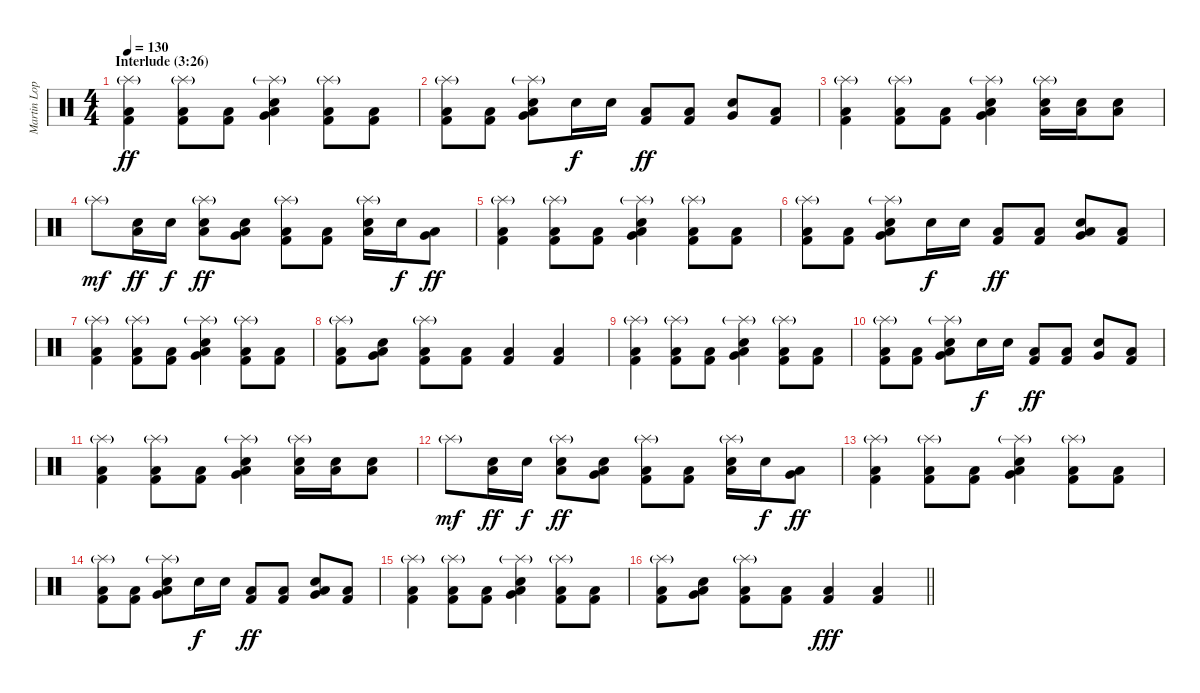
\track ("Martin Lopez" "Martin Lop") {instrument percussion}
\staff {score}
\articulation defaults
\ts (4 4)
\section ("" "Interlude (3:26)")
\tempo 130
\clef neutral
\ks c
("Splash (hit)"{g} "Kick (hit) 2" "Low Floor Tom (hit)").4{dy ff} ("Splash (hit)"{g} "Kick (hit) 2" "Low Floor Tom (hit)").8 ("Kick (hit) 2" "Low Floor Tom (hit)").8 ("Splash (hit)"{g} "Very Low Tom (hit)" "Snare (hit) 2" "Low Floor Tom (hit)").4 ("Splash (hit)"{g} "Kick (hit) 2" "Low Floor Tom (hit)").8 ("Kick (hit) 2" "Low Floor Tom (hit)").8 |
("Splash (hit)"{g} "Kick (hit) 2" "Low Floor Tom (hit)").8 ("Kick (hit) 2" "Low Floor Tom (hit)").8 ("Splash (hit)"{g} "Very Low Tom (hit)" "Snare (hit) 2" "Low Floor Tom (hit)").8 "Snare (hit) 2".16{dy f} "Snare (hit) 2".16 ("Kick (hit) 2" "Low Floor Tom (hit)").8{dy ff} ("Kick (hit) 2" "Low Floor Tom (hit)").8 ("Very Low Tom (hit)" "Snare (hit) 2").8 ("Kick (hit) 2" "Low Floor Tom (hit)").8 |
("Splash (hit)"{g} "Kick (hit) 2" "Low Floor Tom (hit)").4 ("Splash (hit)"{g} "Kick (hit) 2" "Low Floor Tom (hit)").8 ("Kick (hit) 2" "Low Floor Tom (hit)").8 ("Splash (hit)"{g} "Very Low Tom (hit)" "Snare (hit) 2" "Low Floor Tom (hit)").4 ("Splash (hit)"{g} "Snare (hit) 2" "Low Floor Tom (hit)").16 ("Snare (hit) 2" "Low Floor Tom (hit)").16 ("Snare (hit) 2" "Low Floor Tom (hit)").8 |
"Splash (hit)"{g}.8{dy mf} ("Snare (hit) 2" "Low Floor Tom (hit)").16{dy ff} "Snare (hit) 2".16{dy f} ("Splash (hit)"{g} "Snare (hit) 2" "Low Floor Tom (hit)").8{dy ff} ("Very Low Tom (hit)" "Snare (hit) 2" "Low Floor Tom (hit)").8 ("Splash (hit)"{g} "Kick (hit) 2" "Low Floor Tom (hit)").8 ("Kick (hit) 2" "Low Floor Tom (hit)").8 ("Splash (hit)"{g} "Snare (hit) 2" "Low Floor Tom (hit)").16 "Snare (hit) 2".16{dy f} ("Very Low Tom (hit)" "Low Tom (hit)").8{dy ff} |
("Splash (hit)"{g} "Kick (hit) 2" "Low Floor Tom (hit)").4 ("Splash (hit)"{g} "Kick (hit) 2" "Low Floor Tom (hit)").8 ("Kick (hit) 2" "Low Floor Tom (hit)").8 ("Splash (hit)"{g} "Very Low Tom (hit)" "Snare (hit) 2" "Low Floor Tom (hit)").4 ("Splash (hit)"{g} "Kick (hit) 2" "Low Floor Tom (hit)").8 ("Kick (hit) 2" "Low Floor Tom (hit)").8 |
("Splash (hit)"{g} "Kick (hit) 2" "Low Floor Tom (hit)").8 ("Kick (hit) 2" "Low Floor Tom (hit)").8 ("Splash (hit)"{g} "Very Low Tom (hit)" "Snare (hit) 2" "Low Floor Tom (hit)").8 "Snare (hit) 2".16{dy f} "Snare (hit) 2".16 ("Kick (hit) 2" "Low Floor Tom (hit)").8{dy ff} ("Kick (hit) 2" "Low Floor Tom (hit)").8 ("Very Low Tom (hit)" "Snare (hit) 2" "Low Floor Tom (hit)").8 ("Kick (hit) 2" "Low Floor Tom (hit)").8 |
("Splash (hit)"{g} "Kick (hit) 2" "Low Floor Tom (hit)").4 ("Splash (hit)"{g} "Kick (hit) 2" "Low Floor Tom (hit)").8 ("Kick (hit) 2" "Low Floor Tom (hit)").8 ("Splash (hit)"{g} "Very Low Tom (hit)" "Snare (hit) 2" "Low Floor Tom (hit)").4 ("Splash (hit)"{g} "Kick (hit) 2" "Low Floor Tom (hit)").8 ("Kick (hit) 2" "Low Floor Tom (hit)").8 |
("Splash (hit)"{g} "Kick (hit) 2" "Low Floor Tom (hit)").8 ("Very Low Tom (hit)" "Snare (hit) 2" "Low Floor Tom (hit)").8 ("Splash (hit)"{g} "Kick (hit) 2" "Low Floor Tom (hit)").8 ("Kick (hit) 2" "Low Floor Tom (hit)").8 ("Kick (hit) 2" "Low Floor Tom (hit)").4 ("Kick (hit) 2" "Low Floor Tom (hit)").4 |
("Splash (hit)"{g} "Kick (hit) 2" "Low Floor Tom (hit)").4 ("Splash (hit)"{g} "Kick (hit) 2" "Low Floor Tom (hit)").8 ("Kick (hit) 2" "Low Floor Tom (hit)").8 ("Splash (hit)"{g} "Very Low Tom (hit)" "Snare (hit) 2" "Low Floor Tom (hit)").4 ("Splash (hit)"{g} "Kick (hit) 2" "Low Floor Tom (hit)").8 ("Kick (hit) 2" "Low Floor Tom (hit)").8 |
("Splash (hit)"{g} "Kick (hit) 2" "Low Floor Tom (hit)").8 ("Kick (hit) 2" "Low Floor Tom (hit)").8 ("Splash (hit)"{g} "Very Low Tom (hit)" "Snare (hit) 2" "Low Floor Tom (hit)").8 "Snare (hit) 2".16{dy f} "Snare (hit) 2".16 ("Kick (hit) 2" "Low Floor Tom (hit)").8{dy ff} ("Kick (hit) 2" "Low Floor Tom (hit)").8 ("Very Low Tom (hit)" "Snare (hit) 2").8 ("Kick (hit) 2" "Low Floor Tom (hit)").8 |
("Splash (hit)"{g} "Kick (hit) 2" "Low Floor Tom (hit)").4 ("Splash (hit)"{g} "Kick (hit) 2" "Low Floor Tom (hit)").8 ("Kick (hit) 2" "Low Floor Tom (hit)").8 ("Splash (hit)"{g} "Very Low Tom (hit)" "Snare (hit) 2" "Low Floor Tom (hit)").4 ("Splash (hit)"{g} "Snare (hit) 2" "Low Floor Tom (hit)").16 ("Snare (hit) 2" "Low Floor Tom (hit)").16 ("Snare (hit) 2" "Low Floor Tom (hit)").8 |
"Splash (hit)"{g}.8{dy mf} ("Snare (hit) 2" "Low Floor Tom (hit)").16{dy ff} "Snare (hit) 2".16{dy f} ("Splash (hit)"{g} "Snare (hit) 2" "Low Floor Tom (hit)").8{dy ff} ("Very Low Tom (hit)" "Snare (hit) 2" "Low Floor Tom (hit)").8 ("Splash (hit)"{g} "Kick (hit) 2" "Low Floor Tom (hit)").8 ("Kick (hit) 2" "Low Floor Tom (hit)").8 ("Splash (hit)"{g} "Snare (hit) 2" "Low Floor Tom (hit)").16 "Snare (hit) 2".16{dy f} ("Very Low Tom (hit)" "Low Tom (hit)").8{dy ff} |
("Splash (hit)"{g} "Kick (hit) 2" "Low Floor Tom (hit)").4 ("Splash (hit)"{g} "Kick (hit) 2" "Low Floor Tom (hit)").8 ("Kick (hit) 2" "Low Floor Tom (hit)").8 ("Splash (hit)"{g} "Very Low Tom (hit)" "Snare (hit) 2" "Low Floor Tom (hit)").4 ("Splash (hit)"{g} "Kick (hit) 2" "Low Floor Tom (hit)").8 ("Kick (hit) 2" "Low Floor Tom (hit)").8 |
("Splash (hit)"{g} "Kick (hit) 2" "Low Floor Tom (hit)").8 ("Kick (hit) 2" "Low Floor Tom (hit)").8 ("Splash (hit)"{g} "Very Low Tom (hit)" "Snare (hit) 2" "Low Floor Tom (hit)").8 "Snare (hit) 2".16{dy f} "Snare (hit) 2".16 ("Kick (hit) 2" "Low Floor Tom (hit)").8{dy ff} ("Kick (hit) 2" "Low Floor Tom (hit)").8 ("Very Low Tom (hit)" "Snare (hit) 2" "Low Floor Tom (hit)").8 ("Kick (hit) 2" "Low Floor Tom (hit)").8 |
("Splash (hit)"{g} "Kick (hit) 2" "Low Floor Tom (hit)").4 ("Splash (hit)"{g} "Kick (hit) 2" "Low Floor Tom (hit)").8 ("Kick (hit) 2" "Low Floor Tom (hit)").8 ("Splash (hit)"{g} "Very Low Tom (hit)" "Snare (hit) 2" "Low Floor Tom (hit)").4 ("Splash (hit)"{g} "Kick (hit) 2" "Low Floor Tom (hit)").8 ("Kick (hit) 2" "Low Floor Tom (hit)").8 |
\barLineRight lightlight
("Splash (hit)"{g} "Kick (hit) 2" "Low Floor Tom (hit)").8 ("Very Low Tom (hit)" "Snare (hit) 2" "Low Floor Tom (hit)").8 ("Splash (hit)"{g} "Kick (hit) 2" "Low Floor Tom (hit)").8 ("Kick (hit) 2" "Low Floor Tom (hit)").8 ("Kick (hit) 2" "Low Floor Tom (hit)").4{dy fff} ("Kick (hit) 2" "Low Floor Tom (hit)").4
